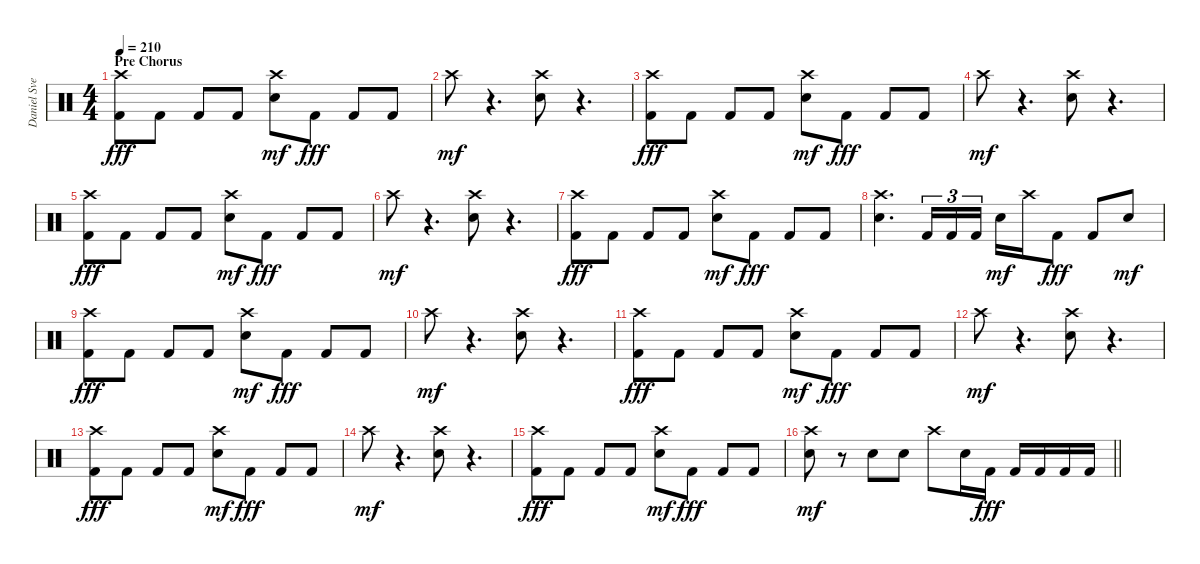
\track ("Daniel Svensson" "Daniel Sve") {instrument percussion}
\staff {score}
\articulation defaults
\ts (4 4)
\section ("" "Pre Chorus")
\tempo 210
\clef neutral
\ks c
("Crash high (hit)" "Kick (hit) 2").8{dy fff} "Kick (hit) 2".8 "Kick (hit) 2".8 "Kick (hit) 2".8 ("Crash high (hit)" "Electric Snare (hit)").8{dy mf} "Kick (hit) 2".8{dy fff} "Kick (hit) 2".8 "Kick (hit) 2".8 |
"Crash high (hit)".8{dy mf} r.4{d} ("Crash high (hit)" "Electric Snare (hit)").8 r.4{d} |
("Crash high (hit)" "Kick (hit) 2").8{dy fff} "Kick (hit) 2".8 "Kick (hit) 2".8 "Kick (hit) 2".8 ("Crash high (hit)" "Electric Snare (hit)").8{dy mf} "Kick (hit) 2".8{dy fff} "Kick (hit) 2".8 "Kick (hit) 2".8 |
"Crash high (hit)".8{dy mf} r.4{d} ("Crash high (hit)" "Electric Snare (hit)").8 r.4{d} |
("Crash high (hit)" "Kick (hit) 2").8{dy fff} "Kick (hit) 2".8 "Kick (hit) 2".8 "Kick (hit) 2".8 ("Crash high (hit)" "Electric Snare (hit)").8{dy mf} "Kick (hit) 2".8{dy fff} "Kick (hit) 2".8 "Kick (hit) 2".8 |
"Crash high (hit)".8{dy mf} r.4{d} ("Crash high (hit)" "Electric Snare (hit)").8 r.4{d} |
("Crash high (hit)" "Kick (hit) 2").8{dy fff} "Kick (hit) 2".8 "Kick (hit) 2".8 "Kick (hit) 2".8 ("Crash high (hit)" "Electric Snare (hit)").8{dy mf} "Kick (hit) 2".8{dy fff} "Kick (hit) 2".8 "Kick (hit) 2".8 |
("Crash high (hit)" "Electric Snare (hit)").4{d} "Kick (hit) 2".16{tu (3 2)} "Kick (hit) 2".16{tu (3 2)} "Kick (hit) 2".16{tu (3 2)} "Electric Snare (hit)".16{dy mf} "Crash high (hit)".16 "Kick (hit) 2".8{dy fff} "Kick (hit) 2".8 "Electric Snare (hit)".8{dy mf} |
("Crash high (hit)" "Kick (hit) 2").8{dy fff} "Kick (hit) 2".8 "Kick (hit) 2".8 "Kick (hit) 2".8 ("Crash high (hit)" "Electric Snare (hit)").8{dy mf} "Kick (hit) 2".8{dy fff} "Kick (hit) 2".8 "Kick (hit) 2".8 |
"Crash high (hit)".8{dy mf} r.4{d} ("Crash high (hit)" "Electric Snare (hit)").8 r.4{d} |
("Crash high (hit)" "Kick (hit) 2").8{dy fff} "Kick (hit) 2".8 "Kick (hit) 2".8 "Kick (hit) 2".8 ("Crash high (hit)" "Electric Snare (hit)").8{dy mf} "Kick (hit) 2".8{dy fff} "Kick (hit) 2".8 "Kick (hit) 2".8 |
"Crash high (hit)".8{dy mf} r.4{d} ("Crash high (hit)" "Electric Snare (hit)").8 r.4{d} |
("Crash high (hit)" "Kick (hit) 2").8{dy fff} "Kick (hit) 2".8 "Kick (hit) 2".8 "Kick (hit) 2".8 ("Crash high (hit)" "Electric Snare (hit)").8{dy mf} "Kick (hit) 2".8{dy fff} "Kick (hit) 2".8 "Kick (hit) 2".8 |
"Crash high (hit)".8{dy mf} r.4{d} ("Crash high (hit)" "Electric Snare (hit)").8 r.4{d} |
("Crash high (hit)" "Kick (hit) 2").8{dy fff} "Kick (hit) 2".8 "Kick (hit) 2".8 "Kick (hit) 2".8 ("Crash high (hit)" "Electric Snare (hit)").8{dy mf} "Kick (hit) 2".8{dy fff} "Kick (hit) 2".8 "Kick (hit) 2".8 |
\barLineRight lightlight
("Crash high (hit)" "Electric Snare (hit)").8{dy mf} r.8 "Electric Snare (hit)".8 "Electric Snare (hit)".8 "Crash high (hit)".8 "Electric Snare (hit)".16 "Kick (hit) 2".16{dy fff} "Kick (hit) 2".16 "Kick (hit) 2".16 "Kick (hit) 2".16 "Kick (hit) 2".16
